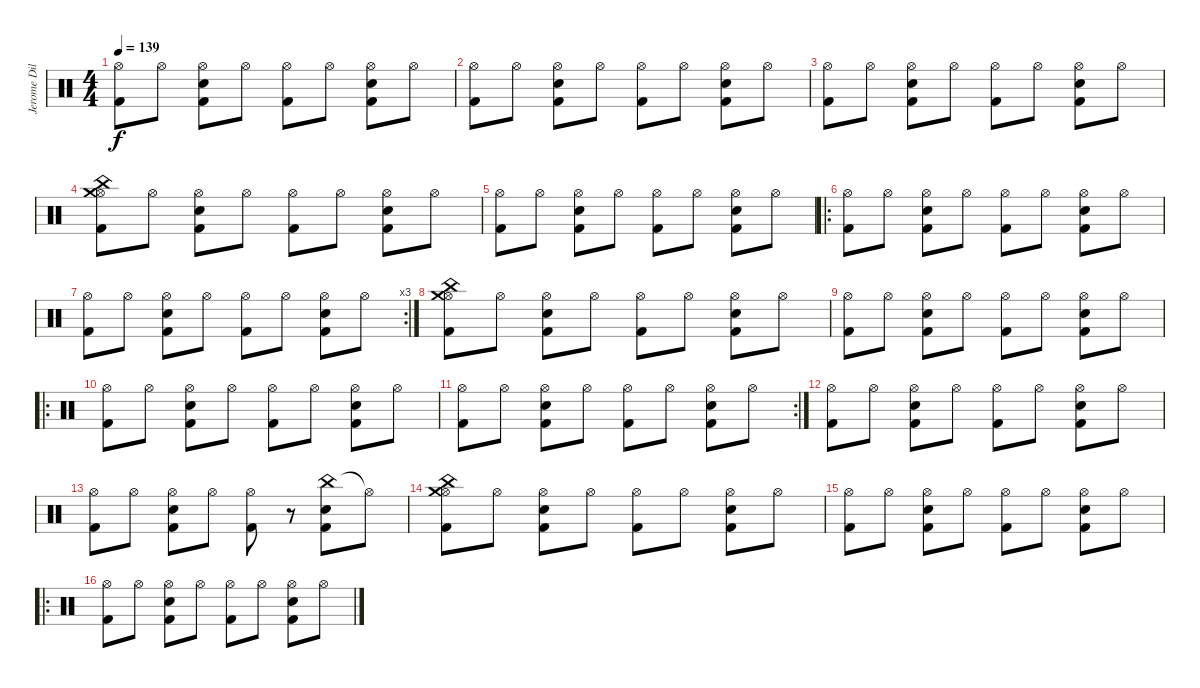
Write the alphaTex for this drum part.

\track ("Jerome Dillon - Batería" "Jerome Dil") {instrument percussion}
\staff {score}
\articulation defaults
\ts (4 4)
\tempo 139
\clef neutral
\ks c
("Hi-Hat (open)" "Kick (hit) 2").8{dy f} "Hi-Hat (open)".8 ("Hi-Hat (open)" "Kick (hit) 2" "Electric Snare (hit)").8 "Hi-Hat (open)".8 ("Hi-Hat (open)" "Kick (hit) 2").8 "Hi-Hat (open)".8 ("Hi-Hat (open)" "Electric Snare (hit)" "Kick (hit) 2").8 "Hi-Hat (open)".8 |
("Hi-Hat (open)" "Kick (hit) 2").8 "Hi-Hat (open)".8 ("Hi-Hat (open)" "Kick (hit) 2" "Electric Snare (hit)").8 "Hi-Hat (open)".8 ("Hi-Hat (open)" "Kick (hit) 2").8 "Hi-Hat (open)".8 ("Hi-Hat (open)" "Electric Snare (hit)" "Kick (hit) 2").8 "Hi-Hat (open)".8 |
("Hi-Hat (open)" "Kick (hit) 2").8 "Hi-Hat (open)".8 ("Hi-Hat (open)" "Kick (hit) 2" "Electric Snare (hit)").8 "Hi-Hat (open)".8 ("Hi-Hat (open)" "Kick (hit) 2").8 "Hi-Hat (open)".8 ("Hi-Hat (open)" "Electric Snare (hit)" "Kick (hit) 2").8 "Hi-Hat (open)".8 |
("Hi-Hat (open)" "Kick (hit) 2" "Crash medium (hit)" "China (hit)").8 "Hi-Hat (open)".8 ("Hi-Hat (open)" "Kick (hit) 2" "Electric Snare (hit)").8 "Hi-Hat (open)".8 ("Hi-Hat (open)" "Kick (hit) 2").8 "Hi-Hat (open)".8 ("Hi-Hat (open)" "Electric Snare (hit)" "Kick (hit) 2").8 "Hi-Hat (open)".8 |
("Hi-Hat (open)" "Kick (hit) 2").8 "Hi-Hat (open)".8 ("Hi-Hat (open)" "Kick (hit) 2" "Electric Snare (hit)").8 "Hi-Hat (open)".8 ("Hi-Hat (open)" "Kick (hit) 2").8 "Hi-Hat (open)".8 ("Hi-Hat (open)" "Electric Snare (hit)" "Kick (hit) 2").8 "Hi-Hat (open)".8 |
\ro
("Hi-Hat (open)" "Kick (hit) 2").8 "Hi-Hat (open)".8 ("Hi-Hat (open)" "Kick (hit) 2" "Electric Snare (hit)").8 "Hi-Hat (open)".8 ("Hi-Hat (open)" "Kick (hit) 2").8 "Hi-Hat (open)".8 ("Hi-Hat (open)" "Electric Snare (hit)" "Kick (hit) 2").8 "Hi-Hat (open)".8 |
\rc 3
("Hi-Hat (open)" "Kick (hit) 2").8 "Hi-Hat (open)".8 ("Hi-Hat (open)" "Kick (hit) 2" "Electric Snare (hit)").8 "Hi-Hat (open)".8 ("Hi-Hat (open)" "Kick (hit) 2").8 "Hi-Hat (open)".8 ("Hi-Hat (open)" "Electric Snare (hit)" "Kick (hit) 2").8 "Hi-Hat (open)".8 |
("Hi-Hat (open)" "Kick (hit) 2" "Crash medium (hit)" "China (hit)").8 "Hi-Hat (open)".8 ("Hi-Hat (open)" "Kick (hit) 2" "Electric Snare (hit)").8 "Hi-Hat (open)".8 ("Hi-Hat (open)" "Kick (hit) 2").8 "Hi-Hat (open)".8 ("Hi-Hat (open)" "Electric Snare (hit)" "Kick (hit) 2").8 "Hi-Hat (open)".8 |
("Hi-Hat (open)" "Kick (hit) 2").8 "Hi-Hat (open)".8 ("Hi-Hat (open)" "Kick (hit) 2" "Electric Snare (hit)").8 "Hi-Hat (open)".8 ("Hi-Hat (open)" "Kick (hit) 2").8 "Hi-Hat (open)".8 ("Hi-Hat (open)" "Electric Snare (hit)" "Kick (hit) 2").8 "Hi-Hat (open)".8 |
\ro
("Hi-Hat (open)" "Kick (hit) 2").8 "Hi-Hat (open)".8 ("Hi-Hat (open)" "Kick (hit) 2" "Electric Snare (hit)").8 "Hi-Hat (open)".8 ("Hi-Hat (open)" "Kick (hit) 2").8 "Hi-Hat (open)".8 ("Hi-Hat (open)" "Electric Snare (hit)" "Kick (hit) 2").8 "Hi-Hat (open)".8 |
\rc 2
("Hi-Hat (open)" "Kick (hit) 2").8 "Hi-Hat (open)".8 ("Hi-Hat (open)" "Kick (hit) 2" "Electric Snare (hit)").8 "Hi-Hat (open)".8 ("Hi-Hat (open)" "Kick (hit) 2").8 "Hi-Hat (open)".8 ("Hi-Hat (open)" "Electric Snare (hit)" "Kick (hit) 2").8 "Hi-Hat (open)".8 |
("Hi-Hat (open)" "Kick (hit) 2").8 "Hi-Hat (open)".8 ("Hi-Hat (open)" "Kick (hit) 2" "Electric Snare (hit)").8 "Hi-Hat (open)".8 ("Hi-Hat (open)" "Kick (hit) 2").8 "Hi-Hat (open)".8 ("Hi-Hat (open)" "Electric Snare (hit)" "Kick (hit) 2").8 "Hi-Hat (open)".8 |
("Hi-Hat (open)" "Kick (hit) 2").8 "Hi-Hat (open)".8 ("Hi-Hat (open)" "Kick (hit) 2" "Electric Snare (hit)").8 "Hi-Hat (open)".8 ("Hi-Hat (open)" "Kick (hit) 2").8 r.8 ("China (hit)" "Kick (hit) 2" "Electric Snare (hit)").8 "Hi-Hat (open)"{t}.8 |
("Hi-Hat (open)" "Kick (hit) 2" "Crash medium (hit)" "China (hit)").8 "Hi-Hat (open)".8 ("Hi-Hat (open)" "Kick (hit) 2" "Electric Snare (hit)").8 "Hi-Hat (open)".8 ("Hi-Hat (open)" "Kick (hit) 2").8 "Hi-Hat (open)".8 ("Hi-Hat (open)" "Electric Snare (hit)" "Kick (hit) 2").8 "Hi-Hat (open)".8 |
("Hi-Hat (open)" "Kick (hit) 2").8 "Hi-Hat (open)".8 ("Hi-Hat (open)" "Kick (hit) 2" "Electric Snare (hit)").8 "Hi-Hat (open)".8 ("Hi-Hat (open)" "Kick (hit) 2").8 "Hi-Hat (open)".8 ("Hi-Hat (open)" "Electric Snare (hit)" "Kick (hit) 2").8 "Hi-Hat (open)".8 |
\ro
("Hi-Hat (open)" "Kick (hit) 2").8 "Hi-Hat (open)".8 ("Hi-Hat (open)" "Kick (hit) 2" "Electric Snare (hit)").8 "Hi-Hat (open)".8 ("Hi-Hat (open)" "Kick (hit) 2").8 "Hi-Hat (open)".8 ("Hi-Hat (open)" "Electric Snare (hit)" "Kick (hit) 2").8 "Hi-Hat (open)".8
